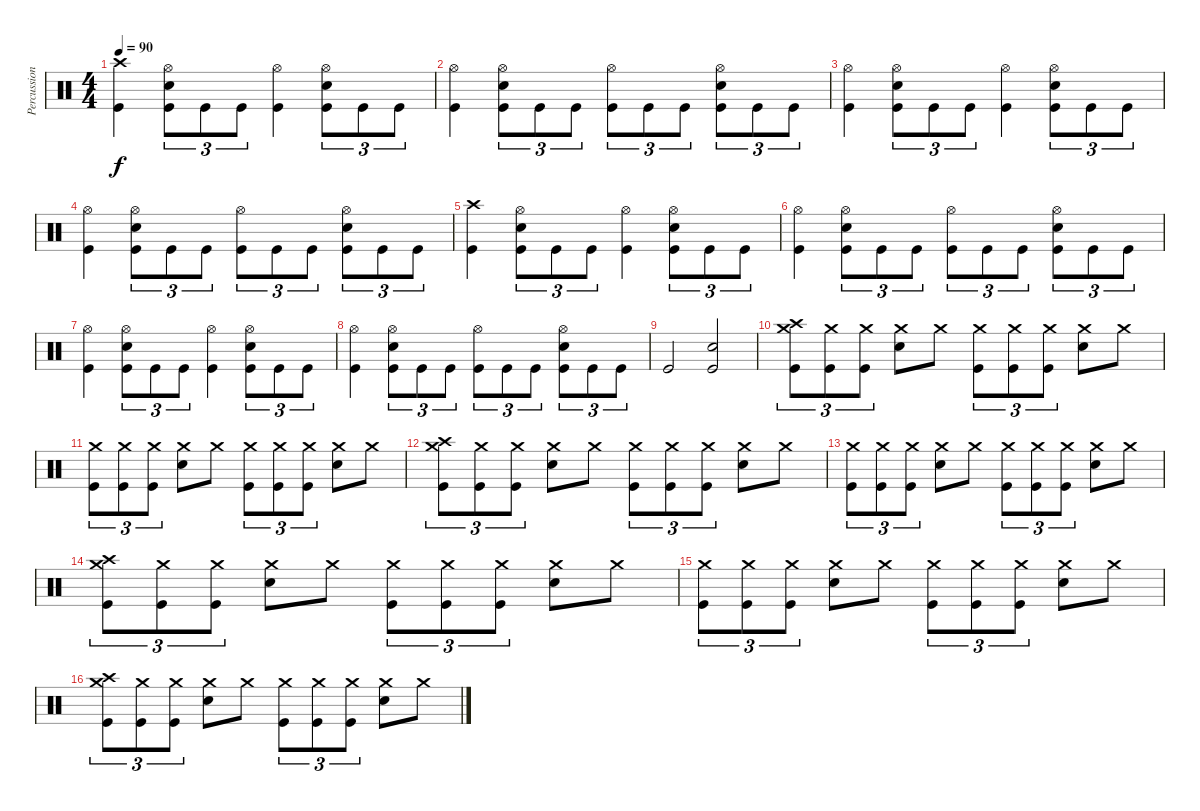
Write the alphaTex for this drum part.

\track ("Percussion" "Percussion") {instrument percussion}
\staff
\articulation defaults
\ts (4 4)
\tempo 90
\clef neutral
\ks c
("Crash high (hit)" "Kick (hit)").4{dy f} ("Snare (hit) 2" "Hi-Hat (open)" "Kick (hit)").8{tu (3 2)} "Kick (hit)".8{tu (3 2)} "Kick (hit)".8{tu (3 2)} ("Hi-Hat (open)" "Kick (hit)").4 ("Snare (hit) 2" "Hi-Hat (open)" "Kick (hit)").8{tu (3 2)} "Kick (hit)".8{tu (3 2)} "Kick (hit)".8{tu (3 2)} |
("Hi-Hat (open)" "Kick (hit)").4 ("Snare (hit) 2" "Hi-Hat (open)" "Kick (hit)").8{tu (3 2)} "Kick (hit)".8{tu (3 2)} "Kick (hit)".8{tu (3 2)} ("Hi-Hat (open)" "Kick (hit)").8{tu (3 2)} "Kick (hit)".8{tu (3 2)} "Kick (hit)".8{tu (3 2)} ("Snare (hit) 2" "Hi-Hat (open)" "Kick (hit)").8{tu (3 2)} "Kick (hit)".8{tu (3 2)} "Kick (hit)".8{tu (3 2)} |
("Hi-Hat (open)" "Kick (hit)").4 ("Snare (hit) 2" "Hi-Hat (open)" "Kick (hit)").8{tu (3 2)} "Kick (hit)".8{tu (3 2)} "Kick (hit)".8{tu (3 2)} ("Hi-Hat (open)" "Kick (hit)").4 ("Snare (hit) 2" "Hi-Hat (open)" "Kick (hit)").8{tu (3 2)} "Kick (hit)".8{tu (3 2)} "Kick (hit)".8{tu (3 2)} |
("Hi-Hat (open)" "Kick (hit)").4 ("Snare (hit) 2" "Hi-Hat (open)" "Kick (hit)").8{tu (3 2)} "Kick (hit)".8{tu (3 2)} "Kick (hit)".8{tu (3 2)} ("Hi-Hat (open)" "Kick (hit)").8{tu (3 2)} "Kick (hit)".8{tu (3 2)} "Kick (hit)".8{tu (3 2)} ("Snare (hit) 2" "Hi-Hat (open)" "Kick (hit)").8{tu (3 2)} "Kick (hit)".8{tu (3 2)} "Kick (hit)".8{tu (3 2)} |
("Crash high (hit)" "Kick (hit)").4 ("Snare (hit) 2" "Hi-Hat (open)" "Kick (hit)").8{tu (3 2)} "Kick (hit)".8{tu (3 2)} "Kick (hit)".8{tu (3 2)} ("Hi-Hat (open)" "Kick (hit)").4 ("Snare (hit) 2" "Hi-Hat (open)" "Kick (hit)").8{tu (3 2)} "Kick (hit)".8{tu (3 2)} "Kick (hit)".8{tu (3 2)} |
("Hi-Hat (open)" "Kick (hit)").4 ("Snare (hit) 2" "Hi-Hat (open)" "Kick (hit)").8{tu (3 2)} "Kick (hit)".8{tu (3 2)} "Kick (hit)".8{tu (3 2)} ("Hi-Hat (open)" "Kick (hit)").8{tu (3 2)} "Kick (hit)".8{tu (3 2)} "Kick (hit)".8{tu (3 2)} ("Snare (hit) 2" "Hi-Hat (open)" "Kick (hit)").8{tu (3 2)} "Kick (hit)".8{tu (3 2)} "Kick (hit)".8{tu (3 2)} |
("Hi-Hat (open)" "Kick (hit)").4 ("Snare (hit) 2" "Hi-Hat (open)" "Kick (hit)").8{tu (3 2)} "Kick (hit)".8{tu (3 2)} "Kick (hit)".8{tu (3 2)} ("Hi-Hat (open)" "Kick (hit)").4 ("Snare (hit) 2" "Hi-Hat (open)" "Kick (hit)").8{tu (3 2)} "Kick (hit)".8{tu (3 2)} "Kick (hit)".8{tu (3 2)} |
("Hi-Hat (open)" "Kick (hit)").4 ("Snare (hit) 2" "Hi-Hat (open)" "Kick (hit)").8{tu (3 2)} "Kick (hit)".8{tu (3 2)} "Kick (hit)".8{tu (3 2)} ("Hi-Hat (open)" "Kick (hit)").8{tu (3 2)} "Kick (hit)".8{tu (3 2)} "Kick (hit)".8{tu (3 2)} ("Snare (hit) 2" "Hi-Hat (open)" "Kick (hit)").8{tu (3 2)} "Kick (hit)".8{tu (3 2)} "Kick (hit)".8{tu (3 2)} |
"Kick (hit)".2 ("Snare (hit) 2" "Kick (hit)").2 |
("Crash high (hit)" "Crash medium (hit)" "Kick (hit)").8{tu (3 2)} ("Crash medium (hit)" "Kick (hit)").8{tu (3 2)} ("Crash medium (hit)" "Kick (hit)").8{tu (3 2)} ("Crash medium (hit)" "Snare (hit) 2").8 "Crash medium (hit)".8 ("Crash medium (hit)" "Kick (hit)").8{tu (3 2)} ("Crash medium (hit)" "Kick (hit)").8{tu (3 2)} ("Crash medium (hit)" "Kick (hit)").8{tu (3 2)} ("Crash medium (hit)" "Snare (hit) 2").8 "Crash medium (hit)".8 |
("Crash medium (hit)" "Kick (hit)").8{tu (3 2)} ("Crash medium (hit)" "Kick (hit)").8{tu (3 2)} ("Crash medium (hit)" "Kick (hit)").8{tu (3 2)} ("Crash medium (hit)" "Snare (hit) 2").8 "Crash medium (hit)".8 ("Crash medium (hit)" "Kick (hit)").8{tu (3 2)} ("Crash medium (hit)" "Kick (hit)").8{tu (3 2)} ("Crash medium (hit)" "Kick (hit)").8{tu (3 2)} ("Crash medium (hit)" "Snare (hit) 2").8 "Crash medium (hit)".8 |
("Crash high (hit)" "Crash medium (hit)" "Kick (hit)").8{tu (3 2)} ("Crash medium (hit)" "Kick (hit)").8{tu (3 2)} ("Crash medium (hit)" "Kick (hit)").8{tu (3 2)} ("Crash medium (hit)" "Snare (hit) 2").8 "Crash medium (hit)".8 ("Crash medium (hit)" "Kick (hit)").8{tu (3 2)} ("Crash medium (hit)" "Kick (hit)").8{tu (3 2)} ("Crash medium (hit)" "Kick (hit)").8{tu (3 2)} ("Crash medium (hit)" "Snare (hit) 2").8 "Crash medium (hit)".8 |
("Crash medium (hit)" "Kick (hit)").8{tu (3 2)} ("Crash medium (hit)" "Kick (hit)").8{tu (3 2)} ("Crash medium (hit)" "Kick (hit)").8{tu (3 2)} ("Crash medium (hit)" "Snare (hit) 2").8 "Crash medium (hit)".8 ("Crash medium (hit)" "Kick (hit)").8{tu (3 2)} ("Crash medium (hit)" "Kick (hit)").8{tu (3 2)} ("Crash medium (hit)" "Kick (hit)").8{tu (3 2)} ("Crash medium (hit)" "Snare (hit) 2").8 "Crash medium (hit)".8 |
("Crash high (hit)" "Crash medium (hit)" "Kick (hit)").8{tu (3 2)} ("Crash medium (hit)" "Kick (hit)").8{tu (3 2)} ("Crash medium (hit)" "Kick (hit)").8{tu (3 2)} ("Crash medium (hit)" "Snare (hit) 2").8 "Crash medium (hit)".8 ("Crash medium (hit)" "Kick (hit)").8{tu (3 2)} ("Crash medium (hit)" "Kick (hit)").8{tu (3 2)} ("Crash medium (hit)" "Kick (hit)").8{tu (3 2)} ("Crash medium (hit)" "Snare (hit) 2").8 "Crash medium (hit)".8 |
("Crash medium (hit)" "Kick (hit)").8{tu (3 2)} ("Crash medium (hit)" "Kick (hit)").8{tu (3 2)} ("Crash medium (hit)" "Kick (hit)").8{tu (3 2)} ("Crash medium (hit)" "Snare (hit) 2").8 "Crash medium (hit)".8 ("Crash medium (hit)" "Kick (hit)").8{tu (3 2)} ("Crash medium (hit)" "Kick (hit)").8{tu (3 2)} ("Crash medium (hit)" "Kick (hit)").8{tu (3 2)} ("Crash medium (hit)" "Snare (hit) 2").8 "Crash medium (hit)".8 |
("Crash high (hit)" "Crash medium (hit)" "Kick (hit)").8{tu (3 2)} ("Crash medium (hit)" "Kick (hit)").8{tu (3 2)} ("Crash medium (hit)" "Kick (hit)").8{tu (3 2)} ("Crash medium (hit)" "Snare (hit) 2").8 "Crash medium (hit)".8 ("Crash medium (hit)" "Kick (hit)").8{tu (3 2)} ("Crash medium (hit)" "Kick (hit)").8{tu (3 2)} ("Crash medium (hit)" "Kick (hit)").8{tu (3 2)} ("Crash medium (hit)" "Snare (hit) 2").8 "Crash medium (hit)".8
